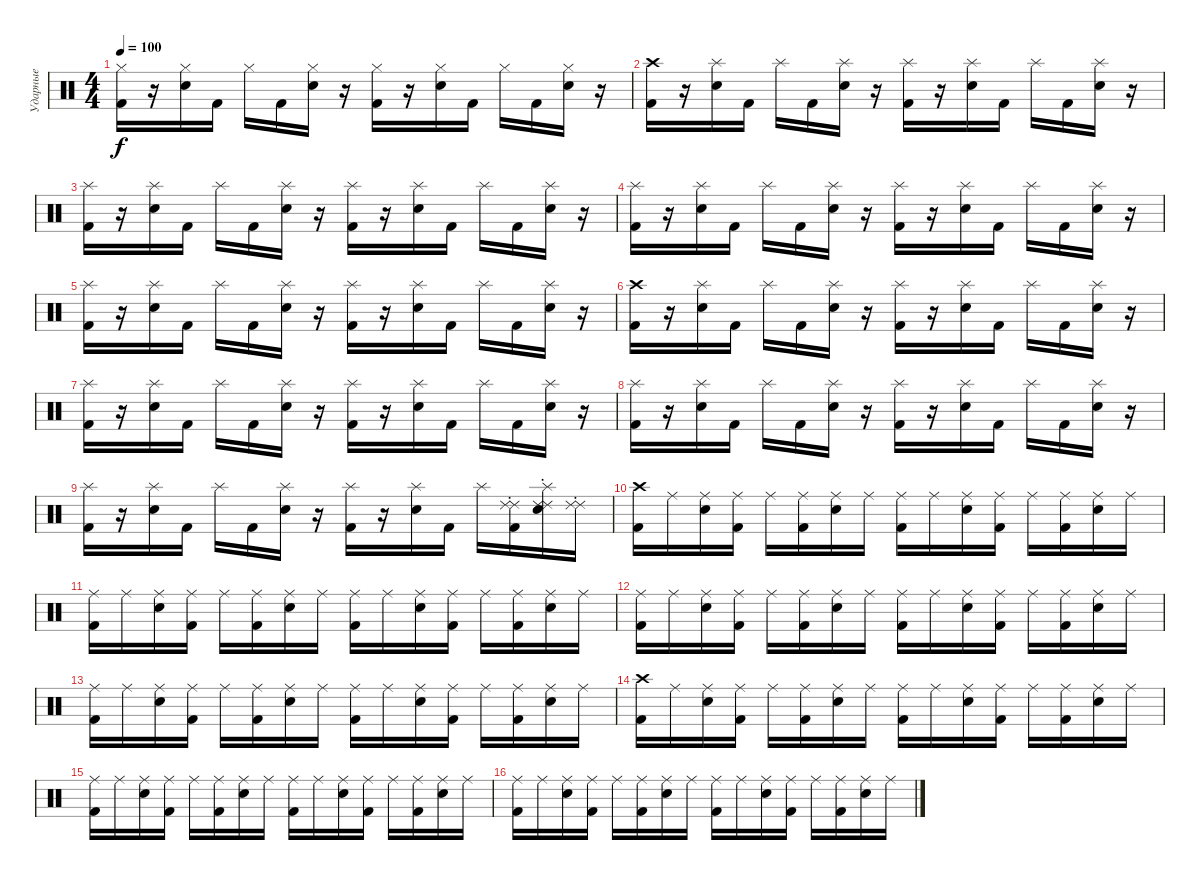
\track ("Ударные" "Ударные") {instrument percussion}
\staff {score}
\articulation defaults
\ts (4 4)
\tempo 100
\clef neutral
\ks c
("Hi-Hat (closed)" "Kick (hit) 2").16{dy f} r.16 ("Hi-Hat (closed)" "Electric Snare (hit)").16 "Kick (hit) 2".16 "Hi-Hat (closed)".16 "Kick (hit) 2".16 ("Hi-Hat (closed)" "Electric Snare (hit)").16 r.16 ("Hi-Hat (closed)" "Kick (hit) 2").16 r.16 ("Hi-Hat (closed)" "Electric Snare (hit)").16 "Kick (hit) 2".16 "Hi-Hat (closed)".16 "Kick (hit) 2".16 ("Hi-Hat (closed)" "Electric Snare (hit)").16 r.16 |
("Crash high (hit)" "Kick (hit) 2").16 r.16 ("Splash (hit)" "Electric Snare (hit)").16 "Kick (hit) 2".16 "Splash (hit)".16 "Kick (hit) 2".16 ("Splash (hit)" "Electric Snare (hit)").16 r.16 ("Splash (hit)" "Kick (hit) 2").16 r.16 ("Splash (hit)" "Electric Snare (hit)").16 "Kick (hit) 2".16 "Splash (hit)".16 "Kick (hit) 2".16 ("Splash (hit)" "Electric Snare (hit)").16 r.16 |
("Splash (hit)" "Kick (hit) 2").16 r.16 ("Splash (hit)" "Electric Snare (hit)").16 "Kick (hit) 2".16 "Splash (hit)".16 "Kick (hit) 2".16 ("Splash (hit)" "Electric Snare (hit)").16 r.16 ("Splash (hit)" "Kick (hit) 2").16 r.16 ("Splash (hit)" "Electric Snare (hit)").16 "Kick (hit) 2".16 "Splash (hit)".16 "Kick (hit) 2".16 ("Splash (hit)" "Electric Snare (hit)").16 r.16 |
("Splash (hit)" "Kick (hit) 2").16 r.16 ("Splash (hit)" "Electric Snare (hit)").16 "Kick (hit) 2".16 "Splash (hit)".16 "Kick (hit) 2".16 ("Splash (hit)" "Electric Snare (hit)").16 r.16 ("Splash (hit)" "Kick (hit) 2").16 r.16 ("Splash (hit)" "Electric Snare (hit)").16 "Kick (hit) 2".16 "Splash (hit)".16 "Kick (hit) 2".16 ("Splash (hit)" "Electric Snare (hit)").16 r.16 |
("Splash (hit)" "Kick (hit) 2").16 r.16 ("Splash (hit)" "Electric Snare (hit)").16 "Kick (hit) 2".16 "Splash (hit)".16 "Kick (hit) 2".16 ("Splash (hit)" "Electric Snare (hit)").16 r.16 ("Splash (hit)" "Kick (hit) 2").16 r.16 ("Splash (hit)" "Electric Snare (hit)").16 "Kick (hit) 2".16 "Splash (hit)".16 "Kick (hit) 2".16 ("Splash (hit)" "Electric Snare (hit)").16 r.16 |
("Crash high (hit)" "Kick (hit) 2").16 r.16 ("Splash (hit)" "Electric Snare (hit)").16 "Kick (hit) 2".16 "Splash (hit)".16 "Kick (hit) 2".16 ("Splash (hit)" "Electric Snare (hit)").16 r.16 ("Splash (hit)" "Kick (hit) 2").16 r.16 ("Splash (hit)" "Electric Snare (hit)").16 "Kick (hit) 2".16 "Splash (hit)".16 "Kick (hit) 2".16 ("Splash (hit)" "Electric Snare (hit)").16 r.16 |
("Splash (hit)" "Kick (hit) 2").16 r.16 ("Splash (hit)" "Electric Snare (hit)").16 "Kick (hit) 2".16 "Splash (hit)".16 "Kick (hit) 2".16 ("Splash (hit)" "Electric Snare (hit)").16 r.16 ("Splash (hit)" "Kick (hit) 2").16 r.16 ("Splash (hit)" "Electric Snare (hit)").16 "Kick (hit) 2".16 "Splash (hit)".16 "Kick (hit) 2".16 ("Splash (hit)" "Electric Snare (hit)").16 r.16 |
("Splash (hit)" "Kick (hit) 2").16 r.16 ("Splash (hit)" "Electric Snare (hit)").16 "Kick (hit) 2".16 "Splash (hit)".16 "Kick (hit) 2".16 ("Splash (hit)" "Electric Snare (hit)").16 r.16 ("Splash (hit)" "Kick (hit) 2").16 r.16 ("Splash (hit)" "Electric Snare (hit)").16 "Kick (hit) 2".16 "Splash (hit)".16 "Kick (hit) 2".16 ("Splash (hit)" "Electric Snare (hit)").16 r.16 |
("Splash (hit)" "Kick (hit) 2").16 r.16 ("Splash (hit)" "Electric Snare (hit)").16 "Kick (hit) 2".16 "Splash (hit)".16 "Kick (hit) 2".16 ("Splash (hit)" "Electric Snare (hit)").16 r.16 ("Splash (hit)" "Kick (hit) 2").16 r.16 ("Splash (hit)" "Electric Snare (hit)").16 "Kick (hit) 2".16 "Splash (hit)".16 ("Ride (choke) 2" "Ride (choke) 2" "Kick (hit) 2").16 ("Splash (hit)" "Ride (choke) 2" "Ride (choke) 2" "Electric Snare (hit)").16 ("Ride (choke) 2" "Ride (choke) 2").16 |
("Crash high (hit)" "Kick (hit) 2").16 "Ride (middle)".16 ("Ride (middle)" "Electric Snare (hit)").16 ("Ride (middle)" "Kick (hit) 2").16 "Ride (middle)".16 ("Ride (middle)" "Kick (hit) 2").16 ("Ride (middle)" "Electric Snare (hit)").16 "Ride (middle)".16 ("Ride (middle)" "Kick (hit) 2").16 "Ride (middle)".16 ("Ride (middle)" "Electric Snare (hit)").16 ("Ride (middle)" "Kick (hit) 2").16 "Ride (middle)".16 ("Ride (middle)" "Kick (hit) 2").16 ("Ride (middle)" "Electric Snare (hit)").16 "Ride (middle)".16 |
("Ride (middle)" "Kick (hit) 2").16 "Ride (middle)".16 ("Ride (middle)" "Electric Snare (hit)").16 ("Ride (middle)" "Kick (hit) 2").16 "Ride (middle)".16 ("Ride (middle)" "Kick (hit) 2").16 ("Ride (middle)" "Electric Snare (hit)").16 "Ride (middle)".16 ("Ride (middle)" "Kick (hit) 2").16 "Ride (middle)".16 ("Ride (middle)" "Electric Snare (hit)").16 ("Ride (middle)" "Kick (hit) 2").16 "Ride (middle)".16 ("Ride (middle)" "Kick (hit) 2").16 ("Ride (middle)" "Electric Snare (hit)").16 "Ride (middle)".16 |
("Ride (middle)" "Kick (hit) 2").16 "Ride (middle)".16 ("Ride (middle)" "Electric Snare (hit)").16 ("Ride (middle)" "Kick (hit) 2").16 "Ride (middle)".16 ("Ride (middle)" "Kick (hit) 2").16 ("Ride (middle)" "Electric Snare (hit)").16 "Ride (middle)".16 ("Ride (middle)" "Kick (hit) 2").16 "Ride (middle)".16 ("Ride (middle)" "Electric Snare (hit)").16 ("Ride (middle)" "Kick (hit) 2").16 "Ride (middle)".16 ("Ride (middle)" "Kick (hit) 2").16 ("Ride (middle)" "Electric Snare (hit)").16 "Ride (middle)".16 |
("Ride (middle)" "Kick (hit) 2").16 "Ride (middle)".16 ("Ride (middle)" "Electric Snare (hit)").16 ("Ride (middle)" "Kick (hit) 2").16 "Ride (middle)".16 ("Ride (middle)" "Kick (hit) 2").16 ("Ride (middle)" "Electric Snare (hit)").16 "Ride (middle)".16 ("Ride (middle)" "Kick (hit) 2").16 "Ride (middle)".16 ("Ride (middle)" "Electric Snare (hit)").16 ("Ride (middle)" "Kick (hit) 2").16 "Ride (middle)".16 ("Ride (middle)" "Kick (hit) 2").16 ("Ride (middle)" "Electric Snare (hit)").16 "Ride (middle)".16 |
("Crash high (hit)" "Kick (hit) 2").16 "Ride (middle)".16 ("Ride (middle)" "Electric Snare (hit)").16 ("Ride (middle)" "Kick (hit) 2").16 "Ride (middle)".16 ("Ride (middle)" "Kick (hit) 2").16 ("Ride (middle)" "Electric Snare (hit)").16 "Ride (middle)".16 ("Ride (middle)" "Kick (hit) 2").16 "Ride (middle)".16 ("Ride (middle)" "Electric Snare (hit)").16 ("Ride (middle)" "Kick (hit) 2").16 "Ride (middle)".16 ("Ride (middle)" "Kick (hit) 2").16 ("Ride (middle)" "Electric Snare (hit)").16 "Ride (middle)".16 |
("Ride (middle)" "Kick (hit) 2").16 "Ride (middle)".16 ("Ride (middle)" "Electric Snare (hit)").16 ("Ride (middle)" "Kick (hit) 2").16 "Ride (middle)".16 ("Ride (middle)" "Kick (hit) 2").16 ("Ride (middle)" "Electric Snare (hit)").16 "Ride (middle)".16 ("Ride (middle)" "Kick (hit) 2").16 "Ride (middle)".16 ("Ride (middle)" "Electric Snare (hit)").16 ("Ride (middle)" "Kick (hit) 2").16 "Ride (middle)".16 ("Ride (middle)" "Kick (hit) 2").16 ("Ride (middle)" "Electric Snare (hit)").16 "Ride (middle)".16 |
("Ride (middle)" "Kick (hit) 2").16 "Ride (middle)".16 ("Ride (middle)" "Electric Snare (hit)").16 ("Ride (middle)" "Kick (hit) 2").16 "Ride (middle)".16 ("Ride (middle)" "Kick (hit) 2").16 ("Ride (middle)" "Electric Snare (hit)").16 "Ride (middle)".16 ("Ride (middle)" "Kick (hit) 2").16 "Ride (middle)".16 ("Ride (middle)" "Electric Snare (hit)").16 ("Ride (middle)" "Kick (hit) 2").16 "Ride (middle)".16 ("Ride (middle)" "Kick (hit) 2").16 ("Ride (middle)" "Electric Snare (hit)").16 "Ride (middle)".16
